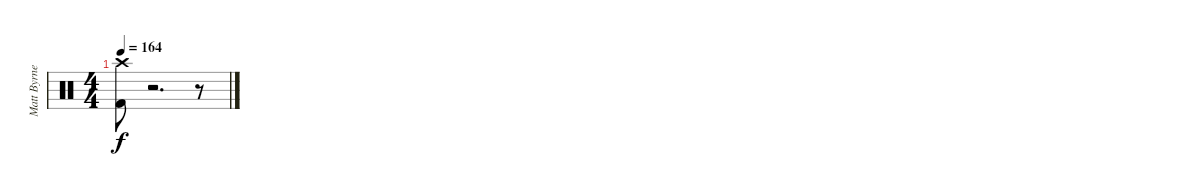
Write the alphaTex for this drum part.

\track ("Matt Byrne (Drums)" "Matt Byrne") {instrument percussion}
\staff {score}
\articulation defaults
\ts (4 4)
\tempo 164
\clef neutral
\ks c
("Crash high (hit)" "Kick (hit) 2").8{dy f} r.2{d volume 0} r.8
